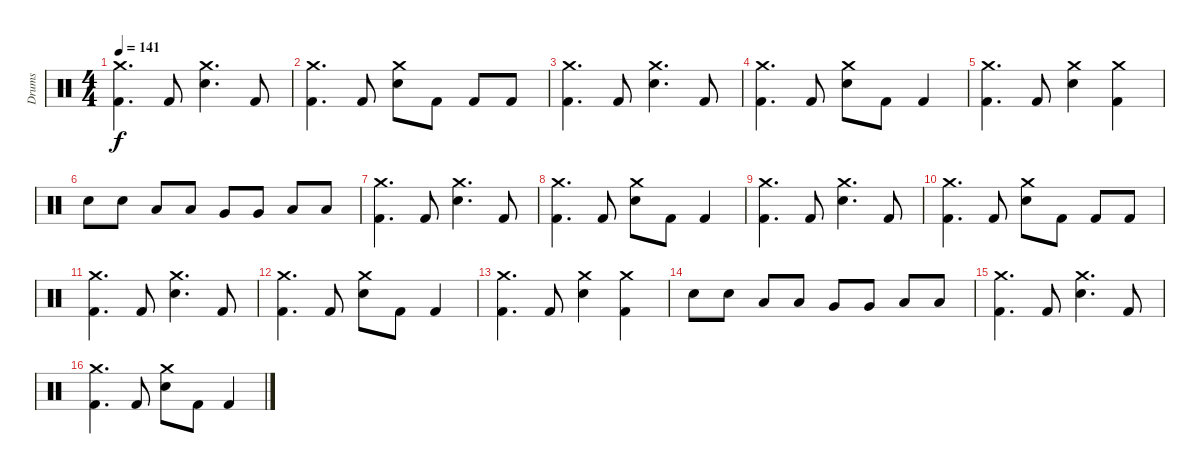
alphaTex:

\track ("Drums" "Drums") {instrument percussion}
\staff {score}
\articulation defaults
\ts (4 4)
\tempo 141
\clef neutral
\ks c
("Kick (hit) 2" "Crash medium (hit)").4{d dy f} "Kick (hit) 2".8 ("Snare (hit) 2" "Crash medium (hit)").4{d} "Kick (hit) 2".8 |
("Kick (hit) 2" "Crash medium (hit)").4{d} "Kick (hit) 2".8 ("Snare (hit) 2" "Crash medium (hit)").8 "Kick (hit) 2".8 "Kick (hit) 2".8 "Kick (hit) 2".8 |
("Kick (hit) 2" "Crash medium (hit)").4{d} "Kick (hit) 2".8 ("Snare (hit) 2" "Crash medium (hit)").4{d} "Kick (hit) 2".8 |
("Kick (hit) 2" "Crash medium (hit)").4{d} "Kick (hit) 2".8 ("Snare (hit) 2" "Crash medium (hit)").8 "Kick (hit) 2".8 "Kick (hit) 2".4 |
("Kick (hit) 2" "Crash medium (hit)").4{d} "Kick (hit) 2".8 ("Snare (hit) 2" "Crash medium (hit)").4 ("Kick (hit) 2" "Crash medium (hit)").4 |
"Snare (hit) 2".8 "Snare (hit) 2".8 "Low Tom (hit)".8 "Low Tom (hit)".8 "Very Low Tom (hit)".8 "Very Low Tom (hit)".8 "Low Floor Tom (hit)".8 "Low Floor Tom (hit)".8 |
("Kick (hit) 2" "Crash medium (hit)").4{d} "Kick (hit) 2".8 ("Snare (hit) 2" "Crash medium (hit)").4{d} "Kick (hit) 2".8 |
("Kick (hit) 2" "Crash medium (hit)").4{d} "Kick (hit) 2".8 ("Snare (hit) 2" "Crash medium (hit)").8 "Kick (hit) 2".8 "Kick (hit) 2".4 |
("Kick (hit) 2" "Crash medium (hit)").4{d} "Kick (hit) 2".8 ("Snare (hit) 2" "Crash medium (hit)").4{d} "Kick (hit) 2".8 |
("Kick (hit) 2" "Crash medium (hit)").4{d} "Kick (hit) 2".8 ("Snare (hit) 2" "Crash medium (hit)").8 "Kick (hit) 2".8 "Kick (hit) 2".8 "Kick (hit) 2".8 |
("Kick (hit) 2" "Crash medium (hit)").4{d} "Kick (hit) 2".8 ("Snare (hit) 2" "Crash medium (hit)").4{d} "Kick (hit) 2".8 |
("Kick (hit) 2" "Crash medium (hit)").4{d} "Kick (hit) 2".8 ("Snare (hit) 2" "Crash medium (hit)").8 "Kick (hit) 2".8 "Kick (hit) 2".4 |
("Kick (hit) 2" "Crash medium (hit)").4{d} "Kick (hit) 2".8 ("Snare (hit) 2" "Crash medium (hit)").4 ("Kick (hit) 2" "Crash medium (hit)").4 |
"Snare (hit) 2".8 "Snare (hit) 2".8 "Low Tom (hit)".8 "Low Tom (hit)".8 "Very Low Tom (hit)".8 "Very Low Tom (hit)".8 "Low Floor Tom (hit)".8 "Low Floor Tom (hit)".8 |
("Kick (hit) 2" "Crash medium (hit)").4{d} "Kick (hit) 2".8 ("Snare (hit) 2" "Crash medium (hit)").4{d} "Kick (hit) 2".8 |
("Kick (hit) 2" "Crash medium (hit)").4{d} "Kick (hit) 2".8 ("Snare (hit) 2" "Crash medium (hit)").8 "Kick (hit) 2".8 "Kick (hit) 2".4
